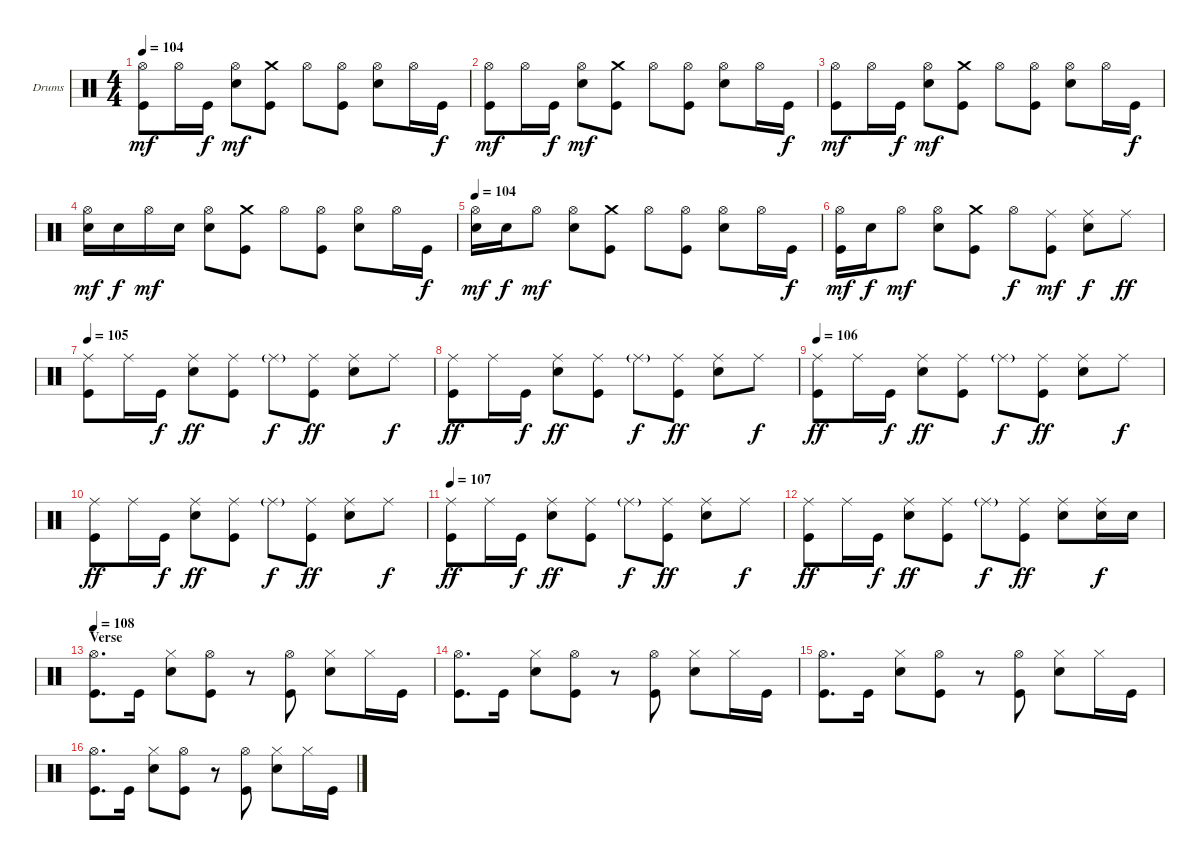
\bracketExtendMode groupsimilarinstruments
\firstSystemTrackNameOrientation horizontal
\otherSystemsTrackNameOrientation horizontal
\track ("Drumkit" "Drums") {instrument percussion}
\staff {score}
\articulation defaults
\ts (4 4)
\tempo 104
\clef neutral
\ks c
("Hi-Hat (open)" "Kick (hit)").8{dy mf} "Hi-Hat (open)".16 "Kick (hit)".16{dy f} ("Hi-Hat (open)" "Snare (hit) 2").8{dy mf} ("Crash medium (hit)" "Kick (hit)").8 "Hi-Hat (open)".8 ("Hi-Hat (open)" "Kick (hit)").8 ("Hi-Hat (open)" "Snare (hit) 2").8 "Hi-Hat (open)".16 "Kick (hit)".16{dy f} |
("Hi-Hat (open)" "Kick (hit)").8{dy mf} "Hi-Hat (open)".16 "Kick (hit)".16{dy f} ("Hi-Hat (open)" "Snare (hit) 2").8{dy mf} ("Crash medium (hit)" "Kick (hit)").8 "Hi-Hat (open)".8 ("Hi-Hat (open)" "Kick (hit)").8 ("Hi-Hat (open)" "Snare (hit) 2").8 "Hi-Hat (open)".16 "Kick (hit)".16{dy f} |
("Hi-Hat (open)" "Kick (hit)").8{dy mf} "Hi-Hat (open)".16 "Kick (hit)".16{dy f} ("Hi-Hat (open)" "Snare (hit) 2").8{dy mf} ("Crash medium (hit)" "Kick (hit)").8 "Hi-Hat (open)".8 ("Hi-Hat (open)" "Kick (hit)").8 ("Hi-Hat (open)" "Snare (hit) 2").8 "Hi-Hat (open)".16 "Kick (hit)".16{dy f} |
("Hi-Hat (open)" "Snare (hit) 2").16{dy mf} "Snare (hit) 2".16{dy f} "Hi-Hat (open)".16{dy mf} "Snare (hit) 2".16 ("Hi-Hat (open)" "Snare (hit) 2").8 ("Crash medium (hit)" "Kick (hit)").8 "Hi-Hat (open)".8 ("Hi-Hat (open)" "Kick (hit)").8 ("Hi-Hat (open)" "Snare (hit) 2").8 "Hi-Hat (open)".16 "Kick (hit)".16{dy f} |
\tempo 104
("Hi-Hat (open)" "Snare (hit) 2").16{dy mf} "Snare (hit) 2".16{dy f} "Hi-Hat (open)".8{dy mf} ("Hi-Hat (open)" "Snare (hit) 2").8 ("Crash medium (hit)" "Kick (hit)").8 "Hi-Hat (open)".8 ("Hi-Hat (open)" "Kick (hit)").8 ("Hi-Hat (open)" "Snare (hit) 2").8 "Hi-Hat (open)".16 "Kick (hit)".16{dy f} |
("Hi-Hat (open)" "Kick (hit)").16{dy mf} "Snare (hit) 2".16{dy f} "Hi-Hat (open)".8{dy mf} ("Hi-Hat (open)" "Snare (hit) 2").8 ("Crash medium (hit)" "Kick (hit)").8 "Hi-Hat (open)".8{dy f} ("Ride (middle)" "Kick (hit)").8{dy mf} ("Ride (middle)" "Snare (hit) 2").8{dy f} "Ride (middle)".8{dy ff} |
\tempo 105
("Ride (middle)" "Kick (hit)").8 "Ride (middle)".16 "Kick (hit)".16{dy f} ("Ride (middle)" "Snare (hit) 2").8{dy ff} ("Ride (middle)" "Kick (hit)").8 "Ride (middle)"{g}.8{dy f} ("Ride (middle)" "Kick (hit)").8{dy ff} ("Ride (middle)" "Snare (hit) 2").8 "Ride (middle)".8{dy f} |
("Ride (middle)" "Kick (hit)").8{dy ff} "Ride (middle)".16 "Kick (hit)".16{dy f} ("Ride (middle)" "Snare (hit) 2").8{dy ff} ("Ride (middle)" "Kick (hit)").8 "Ride (middle)"{g}.8{dy f} ("Ride (middle)" "Kick (hit)").8{dy ff} ("Ride (middle)" "Snare (hit) 2").8 "Ride (middle)".8{dy f} |
\tempo 106
("Ride (middle)" "Kick (hit)").8{dy ff} "Ride (middle)".16 "Kick (hit)".16{dy f} ("Ride (middle)" "Snare (hit) 2").8{dy ff} ("Ride (middle)" "Kick (hit)").8 "Ride (middle)"{g}.8{dy f} ("Ride (middle)" "Kick (hit)").8{dy ff} ("Ride (middle)" "Snare (hit) 2").8 "Ride (middle)".8{dy f} |
("Ride (middle)" "Kick (hit)").8{dy ff} "Ride (middle)".16 "Kick (hit)".16{dy f} ("Ride (middle)" "Snare (hit) 2").8{dy ff} ("Ride (middle)" "Kick (hit)").8 "Ride (middle)"{g}.8{dy f} ("Ride (middle)" "Kick (hit)").8{dy ff} ("Ride (middle)" "Snare (hit) 2").8 "Ride (middle)".8{dy f} |
\tempo 107
("Ride (middle)" "Kick (hit)").8{dy ff} "Ride (middle)".16 "Kick (hit)".16{dy f} ("Ride (middle)" "Snare (hit) 2").8{dy ff} ("Ride (middle)" "Kick (hit)").8 "Ride (middle)"{g}.8{dy f} ("Ride (middle)" "Kick (hit)").8{dy ff} ("Ride (middle)" "Snare (hit) 2").8 "Ride (middle)".8{dy f} |
("Ride (middle)" "Kick (hit)").8{dy ff} "Ride (middle)".16 "Kick (hit)".16{dy f} ("Ride (middle)" "Snare (hit) 2").8{dy ff} ("Ride (middle)" "Kick (hit)").8 "Ride (middle)"{g}.8{dy f} ("Ride (middle)" "Kick (hit)").8{dy ff} ("Ride (middle)" "Snare (hit) 2").8 ("Ride (middle)" "Snare (hit) 2").16{dy f} "Snare (hit) 2".16 |
\section ("" "Verse")
\tempo 108
("Hi-Hat (open)" "Kick (hit)").8{d} "Kick (hit)".16 ("Hi-Hat (closed)" "Snare (hit) 2").8 ("Hi-Hat (open)" "Kick (hit)").8 r.8 ("Hi-Hat (open)" "Kick (hit)").8 ("Hi-Hat (closed)" "Snare (hit) 2").8 "Hi-Hat (closed)".16 "Kick (hit)".16 |
("Hi-Hat (open)" "Kick (hit)").8{d} "Kick (hit)".16 ("Hi-Hat (closed)" "Snare (hit) 2").8 ("Hi-Hat (open)" "Kick (hit)").8 r.8 ("Hi-Hat (open)" "Kick (hit)").8 ("Hi-Hat (closed)" "Snare (hit) 2").8 "Hi-Hat (closed)".16 "Kick (hit)".16 |
("Hi-Hat (open)" "Kick (hit)").8{d} "Kick (hit)".16 ("Hi-Hat (closed)" "Snare (hit) 2").8 ("Hi-Hat (open)" "Kick (hit)").8 r.8 ("Hi-Hat (open)" "Kick (hit)").8 ("Hi-Hat (closed)" "Snare (hit) 2").8 "Hi-Hat (closed)".16 "Kick (hit)".16 |
("Hi-Hat (open)" "Kick (hit)").8{d} "Kick (hit)".16 ("Hi-Hat (closed)" "Snare (hit) 2").8 ("Hi-Hat (open)" "Kick (hit)").8 r.8 ("Hi-Hat (open)" "Kick (hit)").8 ("Hi-Hat (closed)" "Snare (hit) 2").8 "Hi-Hat (closed)".16 "Kick (hit)".16
